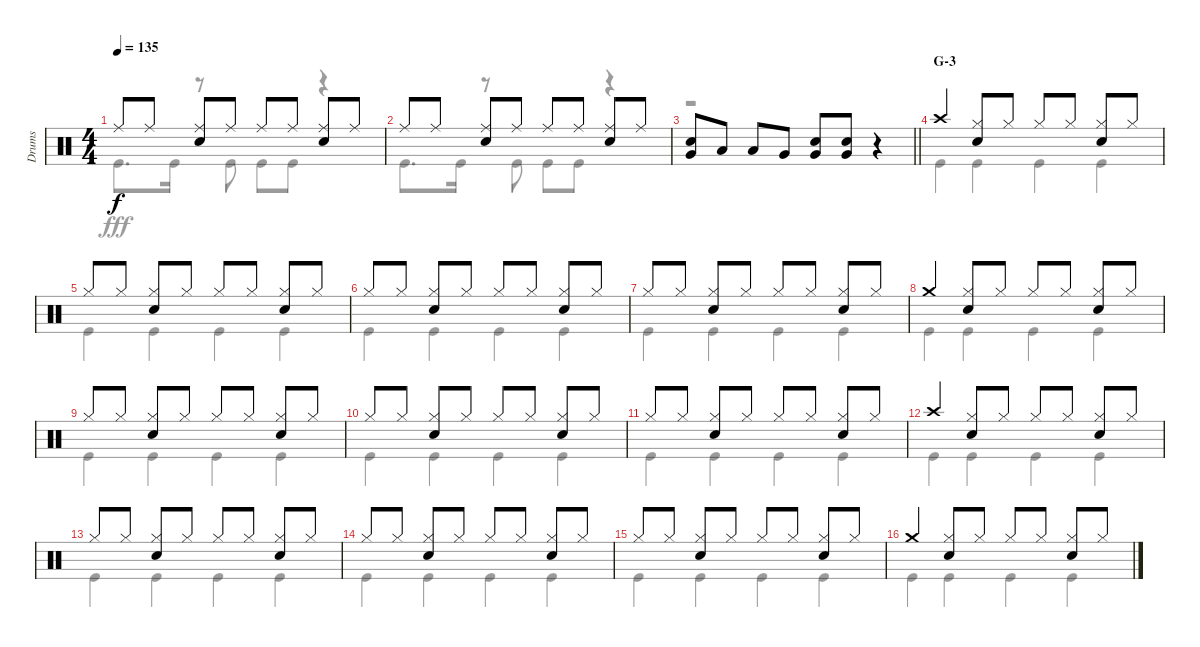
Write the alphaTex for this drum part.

\track ("Drums" "Drums") {instrument percussion}
\staff {score}
\articulation defaults
\voice
\ts (4 4)
\tempo 135
\clef neutral
\ks c "Ride (middle)".8{dy f} "Ride (middle)".8
("Ride (middle)" "Snare (hit) 2").8 "Ride (middle)".8 "Ride (middle)".8 "Ride (middle)".8 ("Ride (middle)" "Snare (hit) 2").8 "Ride (middle)".8 |
"Ride (middle)".8 "Ride (middle)".8 ("Ride (middle)" "Snare (hit) 2").8 "Ride (middle)".8 "Ride (middle)".8 "Ride (middle)".8 ("Ride (middle)" "Snare (hit) 2").8 "Ride (middle)".8 |
\barLineRight lightlight
("Snare (hit) 2" "Very Low Tom (hit)").8 "Low Tom (hit)".8 "Low Tom (hit)".8 "Very Low Tom (hit)".8 ("Snare (hit) 2" "Very Low Tom (hit)").8 ("Snare (hit) 2" "Very Low Tom (hit)").8 r.4 |
\section ("" "G-3")
"Crash high (hit)".4 ("Hi-Hat (closed)" "Snare (hit) 2").8 "Hi-Hat (closed)".8 "Hi-Hat (closed)".8 "Hi-Hat (closed)".8 ("Hi-Hat (closed)" "Snare (hit) 2").8 "Hi-Hat (closed)".8 |
"Hi-Hat (closed)".8 "Hi-Hat (closed)".8 ("Hi-Hat (closed)" "Snare (hit) 2").8 "Hi-Hat (closed)".8 "Hi-Hat (closed)".8 "Hi-Hat (closed)".8 ("Hi-Hat (closed)" "Snare (hit) 2").8 "Hi-Hat (closed)".8 |
"Hi-Hat (closed)".8 "Hi-Hat (closed)".8 ("Hi-Hat (closed)" "Snare (hit) 2").8 "Hi-Hat (closed)".8 "Hi-Hat (closed)".8 "Hi-Hat (closed)".8 ("Hi-Hat (closed)" "Snare (hit) 2").8 "Hi-Hat (closed)".8 |
"Hi-Hat (closed)".8 "Hi-Hat (closed)".8 ("Hi-Hat (closed)" "Snare (hit) 2").8 "Hi-Hat (closed)".8 "Hi-Hat (closed)".8 "Hi-Hat (closed)".8 ("Hi-Hat (closed)" "Snare (hit) 2").8 "Hi-Hat (closed)".8 |
"Crash medium (hit)".4 ("Hi-Hat (closed)" "Snare (hit) 2").8 "Hi-Hat (closed)".8 "Hi-Hat (closed)".8 "Hi-Hat (closed)".8 ("Hi-Hat (closed)" "Snare (hit) 2").8 "Hi-Hat (closed)".8 |
"Hi-Hat (closed)".8 "Hi-Hat (closed)".8 ("Hi-Hat (closed)" "Snare (hit) 2").8 "Hi-Hat (closed)".8 "Hi-Hat (closed)".8 "Hi-Hat (closed)".8 ("Hi-Hat (closed)" "Snare (hit) 2").8 "Hi-Hat (closed)".8 |
"Hi-Hat (closed)".8 "Hi-Hat (closed)".8 ("Hi-Hat (closed)" "Snare (hit) 2").8 "Hi-Hat (closed)".8 "Hi-Hat (closed)".8 "Hi-Hat (closed)".8 ("Hi-Hat (closed)" "Snare (hit) 2").8 "Hi-Hat (closed)".8 |
"Hi-Hat (closed)".8 "Hi-Hat (closed)".8 ("Hi-Hat (closed)" "Snare (hit) 2").8 "Hi-Hat (closed)".8 "Hi-Hat (closed)".8 "Hi-Hat (closed)".8 ("Hi-Hat (closed)" "Snare (hit) 2").8 "Hi-Hat (closed)".8 |
"Crash high (hit)".4 ("Hi-Hat (closed)" "Snare (hit) 2").8 "Hi-Hat (closed)".8 "Hi-Hat (closed)".8 "Hi-Hat (closed)".8 ("Hi-Hat (closed)" "Snare (hit) 2").8 "Hi-Hat (closed)".8 |
"Hi-Hat (closed)".8 "Hi-Hat (closed)".8 ("Hi-Hat (closed)" "Snare (hit) 2").8 "Hi-Hat (closed)".8 "Hi-Hat (closed)".8 "Hi-Hat (closed)".8 ("Hi-Hat (closed)" "Snare (hit) 2").8 "Hi-Hat (closed)".8 |
"Hi-Hat (closed)".8 "Hi-Hat (closed)".8 ("Hi-Hat (closed)" "Snare (hit) 2").8 "Hi-Hat (closed)".8 "Hi-Hat (closed)".8 "Hi-Hat (closed)".8 ("Hi-Hat (closed)" "Snare (hit) 2").8 "Hi-Hat (closed)".8 |
"Hi-Hat (closed)".8 "Hi-Hat (closed)".8 ("Hi-Hat (closed)" "Snare (hit) 2").8 "Hi-Hat (closed)".8 "Hi-Hat (closed)".8 "Hi-Hat (closed)".8 ("Hi-Hat (closed)" "Snare (hit) 2").8 "Hi-Hat (closed)".8 |
"Crash medium (hit)".4 ("Hi-Hat (closed)" "Snare (hit) 2").8 "Hi-Hat (closed)".8 "Hi-Hat (closed)".8 "Hi-Hat (closed)".8 ("Hi-Hat (closed)" "Snare (hit) 2").8 "Hi-Hat (closed)".8
\voice
\clef neutral
\ottava regular
\simile none
\ks c "Kick (hit)".8{d dy fff} "Kick (hit)".16
r.8 "Kick (hit)".8 "Kick (hit)".8 "Kick (hit)".8 r.4 |
"Kick (hit)".8{d} "Kick (hit)".16 r.8 "Kick (hit)".8 "Kick (hit)".8 "Kick (hit)".8 r.4 |
\barLineRight lightlight
r.1 |
"Kick (hit)".4 "Kick (hit)".4 "Kick (hit)".4 "Kick (hit)".4 |
"Kick (hit)".4 "Kick (hit)".4 "Kick (hit)".4 "Kick (hit)".4 |
"Kick (hit)".4 "Kick (hit)".4 "Kick (hit)".4 "Kick (hit)".4 |
"Kick (hit)".4 "Kick (hit)".4 "Kick (hit)".4 "Kick (hit)".4 |
"Kick (hit)".4 "Kick (hit)".4 "Kick (hit)".4 "Kick (hit)".4 |
"Kick (hit)".4 "Kick (hit)".4 "Kick (hit)".4 "Kick (hit)".4 |
"Kick (hit)".4 "Kick (hit)".4 "Kick (hit)".4 "Kick (hit)".4 |
"Kick (hit)".4 "Kick (hit)".4 "Kick (hit)".4 "Kick (hit)".4 |
"Kick (hit)".4 "Kick (hit)".4 "Kick (hit)".4 "Kick (hit)".4 |
"Kick (hit)".4 "Kick (hit)".4 "Kick (hit)".4 "Kick (hit)".4 |
"Kick (hit)".4 "Kick (hit)".4 "Kick (hit)".4 "Kick (hit)".4 |
"Kick (hit)".4 "Kick (hit)".4 "Kick (hit)".4 "Kick (hit)".4 |
"Kick (hit)".4 "Kick (hit)".4 "Kick (hit)".4 "Kick (hit)".4
